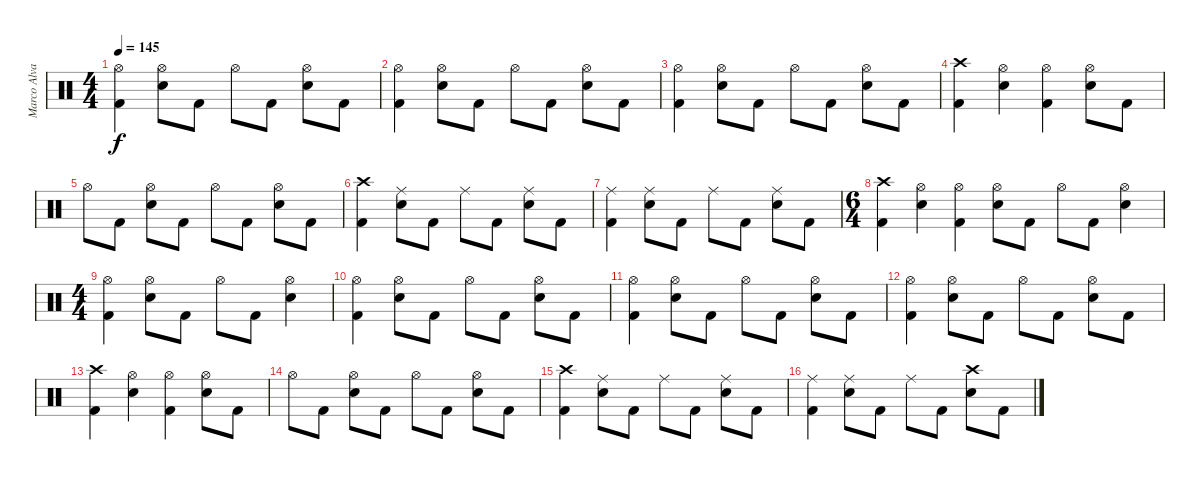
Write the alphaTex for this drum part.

\track ("Marco Alvarez" "Marco Alva") {instrument percussion}
\staff {score}
\articulation defaults
\ts (4 4)
\tempo 145
\clef neutral
\ks c
("Kick (hit) 2" "Hi-Hat (open)").4{dy f} ("Electric Snare (hit)" "Hi-Hat (open)").8 "Kick (hit) 2".8 "Hi-Hat (open)".8 "Kick (hit) 2".8 ("Electric Snare (hit)" "Hi-Hat (open)").8 "Kick (hit) 2".8 |
("Kick (hit) 2" "Hi-Hat (open)").4 ("Electric Snare (hit)" "Hi-Hat (open)").8 "Kick (hit) 2".8 "Hi-Hat (open)".8 "Kick (hit) 2".8 ("Electric Snare (hit)" "Hi-Hat (open)").8 "Kick (hit) 2".8 |
("Kick (hit) 2" "Hi-Hat (open)").4 ("Electric Snare (hit)" "Hi-Hat (open)").8 "Kick (hit) 2".8 "Hi-Hat (open)".8 "Kick (hit) 2".8 ("Electric Snare (hit)" "Hi-Hat (open)").8 "Kick (hit) 2".8 |
("Kick (hit) 2" "Crash high (hit)").4 ("Electric Snare (hit)" "Hi-Hat (open)").4 ("Kick (hit) 2" "Hi-Hat (open)").4 ("Electric Snare (hit)" "Hi-Hat (open)").8 "Kick (hit) 2".8 |
"Hi-Hat (open)".8 "Kick (hit) 2".8 ("Electric Snare (hit)" "Hi-Hat (open)").8 "Kick (hit) 2".8 "Hi-Hat (open)".8 "Kick (hit) 2".8 ("Electric Snare (hit)" "Hi-Hat (open)").8 "Kick (hit) 2".8 |
("Kick (hit) 2" "Crash high (hit)").4 ("Electric Snare (hit)" "Ride (middle)").8 "Kick (hit) 2".8 "Ride (middle)".8 "Kick (hit) 2".8 ("Electric Snare (hit)" "Ride (middle)").8 "Kick (hit) 2".8 |
("Kick (hit) 2" "Ride (middle)").4 ("Electric Snare (hit)" "Ride (middle)").8 "Kick (hit) 2".8 "Ride (middle)".8 "Kick (hit) 2".8 ("Electric Snare (hit)" "Ride (middle)").8 "Kick (hit) 2".8 |
\ts (6 4)
("Kick (hit) 2" "Crash high (hit)").4 ("Electric Snare (hit)" "Hi-Hat (open)").4 ("Kick (hit) 2" "Hi-Hat (open)").4 ("Electric Snare (hit)" "Hi-Hat (open)").8 "Kick (hit) 2".8 "Hi-Hat (open)".8 "Kick (hit) 2".8 ("Electric Snare (hit)" "Hi-Hat (open)").4 |
\ts (4 4)
("Kick (hit) 2" "Hi-Hat (open)").4 ("Electric Snare (hit)" "Hi-Hat (open)").8 "Kick (hit) 2".8 "Hi-Hat (open)".8 "Kick (hit) 2".8 ("Electric Snare (hit)" "Hi-Hat (open)").4 |
("Kick (hit) 2" "Hi-Hat (open)").4 ("Electric Snare (hit)" "Hi-Hat (open)").8 "Kick (hit) 2".8 "Hi-Hat (open)".8 "Kick (hit) 2".8 ("Electric Snare (hit)" "Hi-Hat (open)").8 "Kick (hit) 2".8 |
("Kick (hit) 2" "Hi-Hat (open)").4 ("Electric Snare (hit)" "Hi-Hat (open)").8 "Kick (hit) 2".8 "Hi-Hat (open)".8 "Kick (hit) 2".8 ("Electric Snare (hit)" "Hi-Hat (open)").8 "Kick (hit) 2".8 |
("Kick (hit) 2" "Hi-Hat (open)").4 ("Electric Snare (hit)" "Hi-Hat (open)").8 "Kick (hit) 2".8 "Hi-Hat (open)".8 "Kick (hit) 2".8 ("Electric Snare (hit)" "Hi-Hat (open)").8 "Kick (hit) 2".8 |
("Kick (hit) 2" "Crash high (hit)").4 ("Electric Snare (hit)" "Hi-Hat (open)").4 ("Kick (hit) 2" "Hi-Hat (open)").4 ("Electric Snare (hit)" "Hi-Hat (open)").8 "Kick (hit) 2".8 |
"Hi-Hat (open)".8 "Kick (hit) 2".8 ("Electric Snare (hit)" "Hi-Hat (open)").8 "Kick (hit) 2".8 "Hi-Hat (open)".8 "Kick (hit) 2".8 ("Electric Snare (hit)" "Hi-Hat (open)").8 "Kick (hit) 2".8 |
("Kick (hit) 2" "Crash high (hit)").4 ("Electric Snare (hit)" "Ride (middle)").8 "Kick (hit) 2".8 "Ride (middle)".8 "Kick (hit) 2".8 ("Electric Snare (hit)" "Ride (middle)").8 "Kick (hit) 2".8 |
("Kick (hit) 2" "Ride (middle)").4 ("Electric Snare (hit)" "Ride (middle)").8 "Kick (hit) 2".8 "Ride (middle)".8 "Kick (hit) 2".8 ("Electric Snare (hit)" "Crash high (hit)").8 "Kick (hit) 2".8
